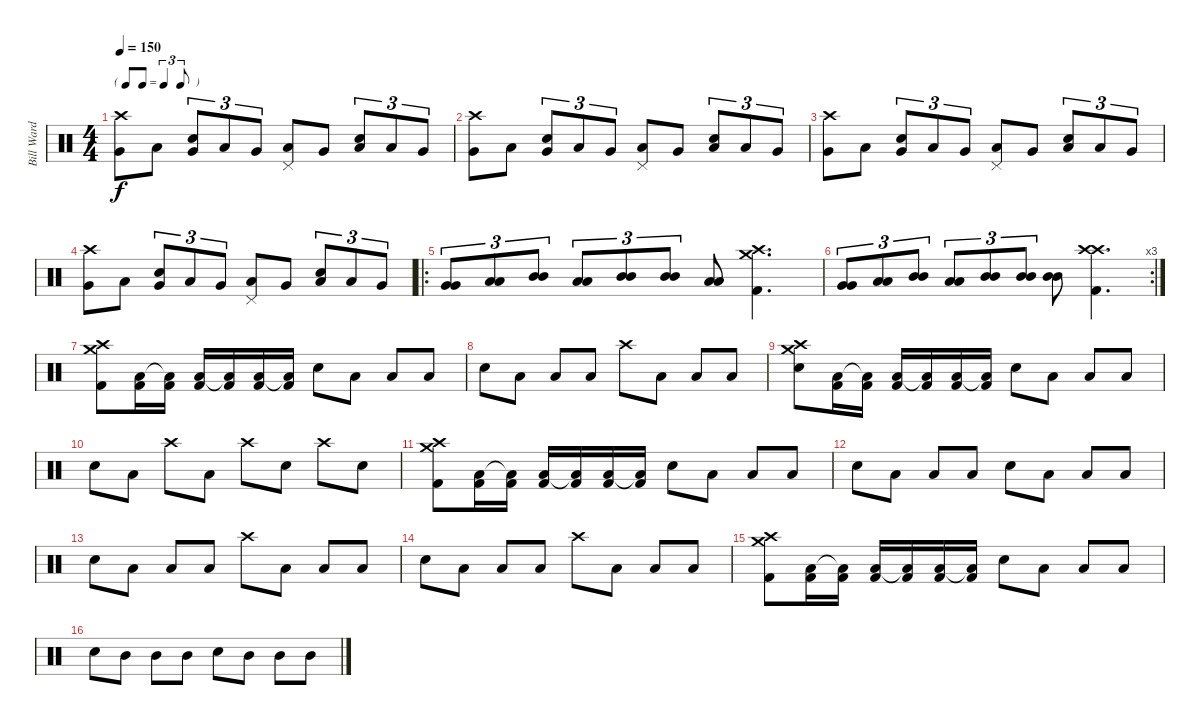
\track ("Bill Ward" "Bill Ward") {instrument percussion}
\staff {score}
\articulation defaults
\ts (4 4)
\tf triplet8th
\tempo 150
\clef neutral
\ks c
("Crash high (hit)" "Very Low Tom (hit)").8{dy f} "Low Tom (hit)".8 ("Snare (hit) 2" "Very Low Tom (hit)").8{tu (3 2)} "Low Tom (hit)".8{tu (3 2)} "Very Low Tom (hit)".8{tu (3 2)} ("Pedal Hi-Hat (hit)" "Low Tom (hit)").8 "Very Low Tom (hit)".8 ("Snare (hit) 2" "Low Tom (hit)").8{tu (3 2)} "Low Tom (hit)".8{tu (3 2)} "Very Low Tom (hit)".8{tu (3 2)} |
("Crash high (hit)" "Very Low Tom (hit)").8 "Low Tom (hit)".8 ("Snare (hit) 2" "Very Low Tom (hit)").8{tu (3 2)} "Low Tom (hit)".8{tu (3 2)} "Very Low Tom (hit)".8{tu (3 2)} ("Pedal Hi-Hat (hit)" "Low Tom (hit)").8 "Very Low Tom (hit)".8 ("Snare (hit) 2" "Low Tom (hit)").8{tu (3 2)} "Low Tom (hit)".8{tu (3 2)} "Very Low Tom (hit)".8{tu (3 2)} |
("Crash high (hit)" "Very Low Tom (hit)").8 "Low Tom (hit)".8 ("Snare (hit) 2" "Very Low Tom (hit)").8{tu (3 2)} "Low Tom (hit)".8{tu (3 2)} "Very Low Tom (hit)".8{tu (3 2)} ("Pedal Hi-Hat (hit)" "Low Tom (hit)").8 "Very Low Tom (hit)".8 ("Snare (hit) 2" "Low Tom (hit)").8{tu (3 2)} "Low Tom (hit)".8{tu (3 2)} "Very Low Tom (hit)".8{tu (3 2)} |
("Crash high (hit)" "Very Low Tom (hit)").8 "Low Tom (hit)".8 ("Snare (hit) 2" "Very Low Tom (hit)").8{tu (3 2)} "Low Tom (hit)".8{tu (3 2)} "Very Low Tom (hit)".8{tu (3 2)} ("Pedal Hi-Hat (hit)" "Low Tom (hit)").8 "Very Low Tom (hit)".8 ("Snare (hit) 2" "Low Tom (hit)").8{tu (3 2)} "Low Tom (hit)".8{tu (3 2)} "Very Low Tom (hit)".8{tu (3 2)} |
\ro
("Very Low Tom (hit)" "Very Low Tom (hit)").8{tu (3 2)} ("Low Tom (hit)" "Low Tom (hit)").8{tu (3 2)} ("Mid Tom (hit)" "Mid Tom (hit)").8{tu (3 2)} ("Low Tom (hit)" "Low Tom (hit)").8{tu (3 2)} ("Mid Tom (hit)" "Mid Tom (hit)").8{tu (3 2)} ("Mid Tom (hit)" "Mid Tom (hit)").8{tu (3 2)} ("Low Tom (hit)" "Low Tom (hit)").8 ("Kick (hit) 2" "Crash medium (hit)" "Crash high (hit)").4{d} |
\rc 3
("Very Low Tom (hit)" "Very Low Tom (hit)").8{tu (3 2)} ("Low Tom (hit)" "Low Tom (hit)").8{tu (3 2)} ("Mid Tom (hit)" "Mid Tom (hit)").8{tu (3 2)} ("Low Tom (hit)" "Low Tom (hit)").8{tu (3 2)} ("Mid Tom (hit)" "Mid Tom (hit)").8{tu (3 2)} ("Mid Tom (hit)" "Mid Tom (hit)").8{tu (3 2)} ("Mid Tom (hit)" "Mid Tom (hit)").8 ("Kick (hit) 2" "Crash high (hit)" "Crash high (hit)").4{d} |
("Crash medium (hit)" "Crash high (hit)" "Kick (hit) 2").8 ("Kick (hit) 2" "Low Tom (hit)").16 ("Kick (hit) 2" "Low Tom (hit)"{t}).16 ("Kick (hit) 2" "Low Tom (hit)").16 ("Kick (hit) 2" "Low Tom (hit)"{t}).16 ("Kick (hit) 2" "Low Tom (hit)").16 ("Kick (hit) 2" "Low Tom (hit)"{t}).16 "Snare (hit) 2".8 "Low Tom (hit)".8 "Low Tom (hit)".8 "Low Tom (hit)".8 |
"Snare (hit) 2".8 "Low Tom (hit)".8 "Low Tom (hit)".8 "Low Tom (hit)".8 "Crash high (hit)".8 "Low Tom (hit)".8 "Low Tom (hit)".8 "Low Tom (hit)".8 |
("Crash medium (hit)" "Crash high (hit)" "Snare (hit) 2").8 ("Kick (hit) 2" "Low Tom (hit)").16 ("Kick (hit) 2" "Low Tom (hit)"{t}).16 ("Kick (hit) 2" "Low Tom (hit)").16 ("Kick (hit) 2" "Low Tom (hit)"{t}).16 ("Kick (hit) 2" "Low Tom (hit)").16 ("Kick (hit) 2" "Low Tom (hit)"{t}).16 "Snare (hit) 2".8 "Low Tom (hit)".8 "Low Tom (hit)".8 "Low Tom (hit)".8 |
"Snare (hit) 2".8 "Low Tom (hit)".8 "Crash high (hit)".8 "Low Tom (hit)".8 "Crash high (hit)".8 "Snare (hit) 2".8 "Crash high (hit)".8 "Snare (hit) 2".8 |
("Crash medium (hit)" "Crash high (hit)" "Kick (hit) 2").8 ("Kick (hit) 2" "Low Tom (hit)").16 ("Kick (hit) 2" "Low Tom (hit)"{t}).16 ("Kick (hit) 2" "Low Tom (hit)").16 ("Kick (hit) 2" "Low Tom (hit)"{t}).16 ("Kick (hit) 2" "Low Tom (hit)").16 ("Kick (hit) 2" "Low Tom (hit)"{t}).16 "Snare (hit) 2".8 "Low Tom (hit)".8 "Low Tom (hit)".8 "Low Tom (hit)".8 |
"Snare (hit) 2".8 "Low Tom (hit)".8 "Low Tom (hit)".8 "Low Tom (hit)".8 "Snare (hit) 2".8 "Low Tom (hit)".8 "Low Tom (hit)".8 "Low Tom (hit)".8 |
"Snare (hit) 2".8 "Low Tom (hit)".8 "Low Tom (hit)".8 "Low Tom (hit)".8 "Crash high (hit)".8 "Low Tom (hit)".8 "Low Tom (hit)".8 "Low Tom (hit)".8 |
"Snare (hit) 2".8 "Low Tom (hit)".8 "Low Tom (hit)".8 "Low Tom (hit)".8 "Crash high (hit)".8 "Low Tom (hit)".8 "Low Tom (hit)".8 "Low Tom (hit)".8 |
("Crash medium (hit)" "Crash high (hit)" "Kick (hit) 2").8 ("Kick (hit) 2" "Low Tom (hit)").16 ("Kick (hit) 2" "Low Tom (hit)"{t}).16 ("Kick (hit) 2" "Low Tom (hit)").16 ("Kick (hit) 2" "Low Tom (hit)"{t}).16 ("Kick (hit) 2" "Low Tom (hit)").16 ("Kick (hit) 2" "Low Tom (hit)"{t}).16 "Snare (hit) 2".8 "Low Tom (hit)".8 "Low Tom (hit)".8 "Low Tom (hit)".8 |
"Snare (hit) 2".8 "Mid Tom (hit)".8 "Mid Tom (hit)".8 "Mid Tom (hit)".8 "Snare (hit) 2".8 "Mid Tom (hit)".8 "Mid Tom (hit)".8 "Mid Tom (hit)".8
